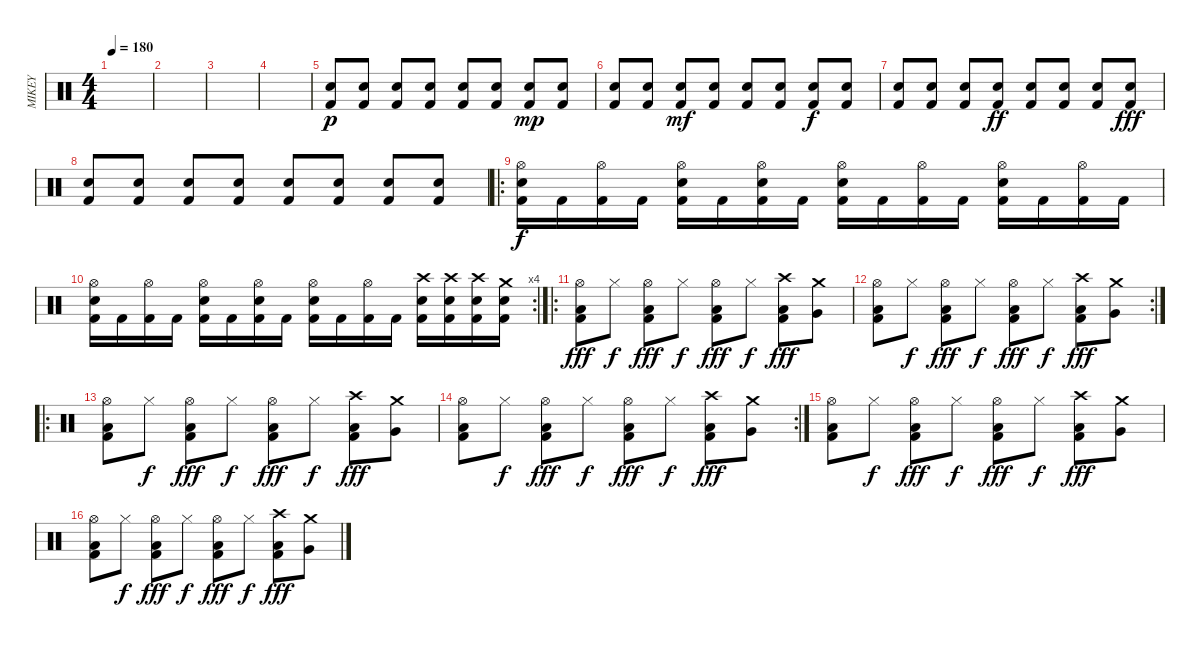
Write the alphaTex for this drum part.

\track ("MIKEY" "MIKEY") {instrument percussion}
\staff {score}
\articulation defaults
\ts (4 4)
\tempo 180
\clef neutral
\ks c
|
|
|
|
("Kick (hit) 2" "Electric Snare (hit)").8{dy p} ("Kick (hit) 2" "Electric Snare (hit)").8 ("Kick (hit) 2" "Electric Snare (hit)").8 ("Kick (hit) 2" "Electric Snare (hit)").8 ("Kick (hit) 2" "Electric Snare (hit)").8 ("Kick (hit) 2" "Electric Snare (hit)").8 ("Kick (hit) 2" "Electric Snare (hit)").8{dy mp} ("Kick (hit) 2" "Electric Snare (hit)").8 |
("Kick (hit) 2" "Electric Snare (hit)").8 ("Kick (hit) 2" "Electric Snare (hit)").8 ("Kick (hit) 2" "Electric Snare (hit)").8{dy mf} ("Kick (hit) 2" "Electric Snare (hit)").8 ("Kick (hit) 2" "Electric Snare (hit)").8 ("Kick (hit) 2" "Electric Snare (hit)").8 ("Kick (hit) 2" "Electric Snare (hit)").8{dy f} ("Kick (hit) 2" "Electric Snare (hit)").8 |
("Kick (hit) 2" "Electric Snare (hit)").8 ("Kick (hit) 2" "Electric Snare (hit)").8 ("Kick (hit) 2" "Electric Snare (hit)").8 ("Kick (hit) 2" "Electric Snare (hit)").8{dy ff} ("Kick (hit) 2" "Electric Snare (hit)").8 ("Kick (hit) 2" "Electric Snare (hit)").8 ("Kick (hit) 2" "Electric Snare (hit)").8 ("Kick (hit) 2" "Electric Snare (hit)").8{dy fff} |
("Kick (hit) 2" "Electric Snare (hit)").8 ("Kick (hit) 2" "Electric Snare (hit)").8 ("Kick (hit) 2" "Electric Snare (hit)").8 ("Kick (hit) 2" "Electric Snare (hit)").8 ("Kick (hit) 2" "Electric Snare (hit)").8 ("Kick (hit) 2" "Electric Snare (hit)").8 ("Kick (hit) 2" "Electric Snare (hit)").8 ("Kick (hit) 2" "Electric Snare (hit)").8 |
\ro
("Hi-Hat (open)" "Electric Snare (hit)" "Kick (hit) 2").16{dy f} "Kick (hit) 2".16 ("Hi-Hat (open)" "Kick (hit) 2").16 "Kick (hit) 2".16 ("Hi-Hat (open)" "Electric Snare (hit)" "Kick (hit) 2").16 "Kick (hit) 2".16 ("Hi-Hat (open)" "Electric Snare (hit)" "Kick (hit) 2").16 "Kick (hit) 2".16 ("Hi-Hat (open)" "Electric Snare (hit)" "Kick (hit) 2").16 "Kick (hit) 2".16 ("Hi-Hat (open)" "Kick (hit) 2").16 "Kick (hit) 2".16 ("Hi-Hat (open)" "Electric Snare (hit)" "Kick (hit) 2").16 "Kick (hit) 2".16 ("Hi-Hat (open)" "Kick (hit) 2").16 "Kick (hit) 2".16 |
\rc 4
("Hi-Hat (open)" "Electric Snare (hit)" "Kick (hit) 2").16 "Kick (hit) 2".16 ("Hi-Hat (open)" "Kick (hit) 2").16 "Kick (hit) 2".16 ("Hi-Hat (open)" "Electric Snare (hit)" "Kick (hit) 2").16 "Kick (hit) 2".16 ("Hi-Hat (open)" "Electric Snare (hit)" "Kick (hit) 2").16 "Kick (hit) 2".16 ("Hi-Hat (open)" "Electric Snare (hit)" "Kick (hit) 2").16 "Kick (hit) 2".16 ("Hi-Hat (open)" "Kick (hit) 2").16 "Kick (hit) 2".16 ("Crash high (hit)" "Electric Snare (hit)" "Kick (hit) 2").16 ("Crash high (hit)" "Electric Snare (hit)" "Kick (hit) 2").16 ("Crash high (hit)" "Electric Snare (hit)" "Kick (hit) 2").16 ("Crash medium (hit)" "Electric Snare (hit)" "Kick (hit) 2").16 |
\ro
("Low Floor Tom (hit)" "Kick (hit) 2" "Hi-Hat (open)").8{dy fff} "Hi-Hat (closed)".8{dy f} ("Low Floor Tom (hit)" "Kick (hit) 2" "Hi-Hat (open)").8{dy fff} "Hi-Hat (closed)".8{dy f} ("Low Floor Tom (hit)" "Kick (hit) 2" "Hi-Hat (open)").8{dy fff} "Hi-Hat (closed)".8{dy f} ("Low Floor Tom (hit)" "Kick (hit) 2" "Crash high (hit)").8{dy fff} ("Very Low Tom (hit)" "Crash medium (hit)").8 |
\rc 2
("Low Floor Tom (hit)" "Kick (hit) 2" "Hi-Hat (open)").8 "Hi-Hat (closed)".8{dy f} ("Low Floor Tom (hit)" "Kick (hit) 2" "Hi-Hat (open)").8{dy fff} "Hi-Hat (closed)".8{dy f} ("Low Floor Tom (hit)" "Kick (hit) 2" "Hi-Hat (open)").8{dy fff} "Hi-Hat (closed)".8{dy f} ("Low Floor Tom (hit)" "Kick (hit) 2" "Crash high (hit)").8{dy fff} ("Very Low Tom (hit)" "Crash medium (hit)").8 |
\ro
("Low Floor Tom (hit)" "Kick (hit) 2" "Hi-Hat (open)").8 "Hi-Hat (closed)".8{dy f} ("Low Floor Tom (hit)" "Kick (hit) 2" "Hi-Hat (open)").8{dy fff} "Hi-Hat (closed)".8{dy f} ("Low Floor Tom (hit)" "Kick (hit) 2" "Hi-Hat (open)").8{dy fff} "Hi-Hat (closed)".8{dy f} ("Low Floor Tom (hit)" "Kick (hit) 2" "Crash high (hit)").8{dy fff} ("Very Low Tom (hit)" "Crash medium (hit)").8 |
\rc 2
("Low Floor Tom (hit)" "Kick (hit) 2" "Hi-Hat (open)").8 "Hi-Hat (closed)".8{dy f} ("Low Floor Tom (hit)" "Kick (hit) 2" "Hi-Hat (open)").8{dy fff} "Hi-Hat (closed)".8{dy f} ("Low Floor Tom (hit)" "Kick (hit) 2" "Hi-Hat (open)").8{dy fff} "Hi-Hat (closed)".8{dy f} ("Low Floor Tom (hit)" "Kick (hit) 2" "Crash high (hit)").8{dy fff} ("Very Low Tom (hit)" "Crash medium (hit)").8 |
("Low Floor Tom (hit)" "Kick (hit) 2" "Hi-Hat (open)").8 "Hi-Hat (closed)".8{dy f} ("Low Floor Tom (hit)" "Kick (hit) 2" "Hi-Hat (open)").8{dy fff} "Hi-Hat (closed)".8{dy f} ("Low Floor Tom (hit)" "Kick (hit) 2" "Hi-Hat (open)").8{dy fff} "Hi-Hat (closed)".8{dy f} ("Low Floor Tom (hit)" "Kick (hit) 2" "Crash high (hit)").8{dy fff} ("Very Low Tom (hit)" "Crash medium (hit)").8 |
("Low Floor Tom (hit)" "Kick (hit) 2" "Hi-Hat (open)").8 "Hi-Hat (closed)".8{dy f} ("Low Floor Tom (hit)" "Kick (hit) 2" "Hi-Hat (open)").8{dy fff} "Hi-Hat (closed)".8{dy f} ("Low Floor Tom (hit)" "Kick (hit) 2" "Hi-Hat (open)").8{dy fff} "Hi-Hat (closed)".8{dy f} ("Low Floor Tom (hit)" "Kick (hit) 2" "Crash high (hit)").8{dy fff} ("Very Low Tom (hit)" "Crash medium (hit)").8
